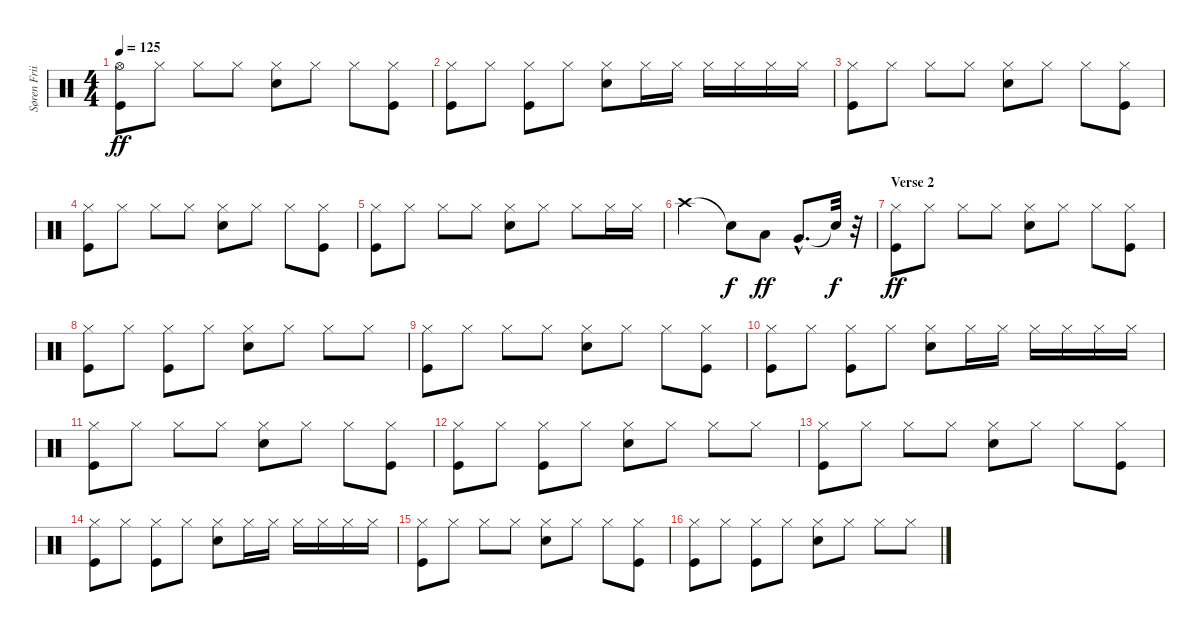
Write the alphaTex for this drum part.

\track ("Søren Friis - Drums" "Søren Frii") {instrument percussion}
\staff {score}
\articulation defaults
\ts (4 4)
\tempo 125
\clef neutral
\ks c
("Kick (hit)" "Hi-Hat (open)").8{dy ff} "Hi-Hat (closed)".8 "Hi-Hat (closed)".8 "Hi-Hat (closed)".8 ("Snare (hit) 2" "Hi-Hat (closed)").8 "Hi-Hat (closed)".8 "Hi-Hat (closed)".8 ("Kick (hit)" "Hi-Hat (closed)").8 |
("Kick (hit)" "Hi-Hat (closed)").8 "Hi-Hat (closed)".8 ("Kick (hit)" "Hi-Hat (closed)").8 "Hi-Hat (closed)".8 ("Snare (hit) 2" "Hi-Hat (closed)").8 "Hi-Hat (closed)".16 "Hi-Hat (closed)".16 "Hi-Hat (closed)".16 "Hi-Hat (closed)".16 "Hi-Hat (closed)".16 "Hi-Hat (closed)".16 |
("Kick (hit)" "Hi-Hat (closed)").8 "Hi-Hat (closed)".8 "Hi-Hat (closed)".8 "Hi-Hat (closed)".8 ("Snare (hit) 2" "Hi-Hat (closed)").8 "Hi-Hat (closed)".8 "Hi-Hat (closed)".8 ("Kick (hit)" "Hi-Hat (closed)").8 |
("Kick (hit)" "Hi-Hat (closed)").8 "Hi-Hat (closed)".8 "Hi-Hat (closed)".8 "Hi-Hat (closed)".8 ("Snare (hit) 2" "Hi-Hat (closed)").8 "Hi-Hat (closed)".8 "Hi-Hat (closed)".8 ("Kick (hit)" "Hi-Hat (closed)").8 |
("Kick (hit)" "Hi-Hat (closed)").8 "Hi-Hat (closed)".8 "Hi-Hat (closed)".8 "Hi-Hat (closed)".8 ("Snare (hit) 2" "Hi-Hat (closed)").8 "Hi-Hat (closed)".8 "Hi-Hat (closed)".8 "Hi-Hat (closed)".16 "Hi-Hat (closed)".16 |
"Crash high (hit)".2 "Snare (hit)"{t}.8{dy f} "Low Tom (hit)".8{dy ff} "Very Low Tom (hit)"{hac}.8{d} "Snare (hit)"{t}.32{dy f} r.32 |
\section ("" "Verse 2")
("Kick (hit)" "Hi-Hat (closed)").8{dy ff} "Hi-Hat (closed)".8 "Hi-Hat (closed)".8 "Hi-Hat (closed)".8 ("Snare (hit) 2" "Hi-Hat (closed)").8 "Hi-Hat (closed)".8 "Hi-Hat (closed)".8 ("Kick (hit)" "Hi-Hat (closed)").8 |
("Kick (hit)" "Hi-Hat (closed)").8 "Hi-Hat (closed)".8 ("Kick (hit)" "Hi-Hat (closed)").8 "Hi-Hat (closed)".8 ("Snare (hit) 2" "Hi-Hat (closed)").8 "Hi-Hat (closed)".8 "Hi-Hat (closed)".8 "Hi-Hat (closed)".8 |
("Kick (hit)" "Hi-Hat (closed)").8 "Hi-Hat (closed)".8 "Hi-Hat (closed)".8 "Hi-Hat (closed)".8 ("Snare (hit) 2" "Hi-Hat (closed)").8 "Hi-Hat (closed)".8 "Hi-Hat (closed)".8 ("Kick (hit)" "Hi-Hat (closed)").8 |
("Kick (hit)" "Hi-Hat (closed)").8 "Hi-Hat (closed)".8 ("Kick (hit)" "Hi-Hat (closed)").8 "Hi-Hat (closed)".8 ("Snare (hit) 2" "Hi-Hat (closed)").8 "Hi-Hat (closed)".16 "Hi-Hat (closed)".16 "Hi-Hat (closed)".16 "Hi-Hat (closed)".16 "Hi-Hat (closed)".16 "Hi-Hat (closed)".16 |
("Kick (hit)" "Hi-Hat (closed)").8 "Hi-Hat (closed)".8 "Hi-Hat (closed)".8 "Hi-Hat (closed)".8 ("Snare (hit) 2" "Hi-Hat (closed)").8 "Hi-Hat (closed)".8 "Hi-Hat (closed)".8 ("Kick (hit)" "Hi-Hat (closed)").8 |
("Kick (hit)" "Hi-Hat (closed)").8 "Hi-Hat (closed)".8 ("Kick (hit)" "Hi-Hat (closed)").8 "Hi-Hat (closed)".8 ("Snare (hit) 2" "Hi-Hat (closed)").8 "Hi-Hat (closed)".8 "Hi-Hat (closed)".8 "Hi-Hat (closed)".8 |
("Kick (hit)" "Hi-Hat (closed)").8 "Hi-Hat (closed)".8 "Hi-Hat (closed)".8 "Hi-Hat (closed)".8 ("Snare (hit) 2" "Hi-Hat (closed)").8 "Hi-Hat (closed)".8 "Hi-Hat (closed)".8 ("Kick (hit)" "Hi-Hat (closed)").8 |
("Kick (hit)" "Hi-Hat (closed)").8 "Hi-Hat (closed)".8 ("Kick (hit)" "Hi-Hat (closed)").8 "Hi-Hat (closed)".8 ("Snare (hit) 2" "Hi-Hat (closed)").8 "Hi-Hat (closed)".16 "Hi-Hat (closed)".16 "Hi-Hat (closed)".16 "Hi-Hat (closed)".16 "Hi-Hat (closed)".16 "Hi-Hat (closed)".16 |
("Kick (hit)" "Hi-Hat (closed)").8 "Hi-Hat (closed)".8 "Hi-Hat (closed)".8 "Hi-Hat (closed)".8 ("Snare (hit) 2" "Hi-Hat (closed)").8 "Hi-Hat (closed)".8 "Hi-Hat (closed)".8 ("Kick (hit)" "Hi-Hat (closed)").8 |
("Kick (hit)" "Hi-Hat (closed)").8 "Hi-Hat (closed)".8 ("Kick (hit)" "Hi-Hat (closed)").8 "Hi-Hat (closed)".8 ("Snare (hit) 2" "Hi-Hat (closed)").8 "Hi-Hat (closed)".8 "Hi-Hat (closed)".8 "Hi-Hat (closed)".8
